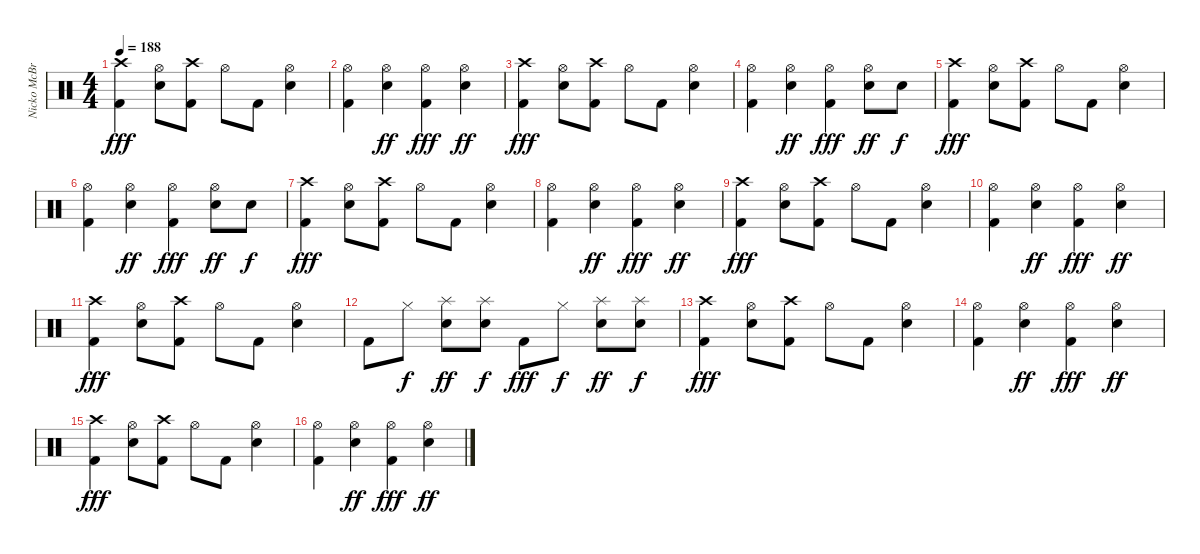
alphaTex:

\track ("Nicko McBrain" "Nicko McBr") {instrument percussion}
\staff {score}
\articulation defaults
\ts (4 4)
\tempo 188
\clef neutral
\ks c
("Crash high (hit)" "Kick (hit) 2").4{dy fff} ("Hi-Hat (open)" "Electric Snare (hit)").8 ("Crash high (hit)" "Kick (hit) 2").8 "Hi-Hat (open)".8 "Kick (hit) 2".8 ("Hi-Hat (open)" "Electric Snare (hit)").4 |
("Hi-Hat (open)" "Kick (hit) 2").4 ("Hi-Hat (open)" "Electric Snare (hit)").4{dy ff} ("Hi-Hat (open)" "Kick (hit) 2").4{dy fff} ("Hi-Hat (open)" "Electric Snare (hit)").4{dy ff} |
("Crash high (hit)" "Kick (hit) 2").4{dy fff} ("Hi-Hat (open)" "Electric Snare (hit)").8 ("Crash high (hit)" "Kick (hit) 2").8 "Hi-Hat (open)".8 "Kick (hit) 2".8 ("Hi-Hat (open)" "Electric Snare (hit)").4 |
("Hi-Hat (open)" "Kick (hit) 2").4 ("Hi-Hat (open)" "Electric Snare (hit)").4{dy ff} ("Hi-Hat (open)" "Kick (hit) 2").4{dy fff} ("Hi-Hat (open)" "Electric Snare (hit)").8{dy ff} "Electric Snare (hit)".8{dy f} |
("Crash high (hit)" "Kick (hit) 2").4{dy fff} ("Hi-Hat (open)" "Electric Snare (hit)").8 ("Crash high (hit)" "Kick (hit) 2").8 "Hi-Hat (open)".8 "Kick (hit) 2".8 ("Hi-Hat (open)" "Electric Snare (hit)").4 |
("Hi-Hat (open)" "Kick (hit) 2").4 ("Hi-Hat (open)" "Electric Snare (hit)").4{dy ff} ("Hi-Hat (open)" "Kick (hit) 2").4{dy fff} ("Hi-Hat (open)" "Electric Snare (hit)").8{dy ff} "Electric Snare (hit)".8{dy f} |
("Crash high (hit)" "Kick (hit) 2").4{dy fff} ("Hi-Hat (open)" "Electric Snare (hit)").8 ("Crash high (hit)" "Kick (hit) 2").8 "Hi-Hat (open)".8 "Kick (hit) 2".8 ("Hi-Hat (open)" "Electric Snare (hit)").4 |
("Hi-Hat (open)" "Kick (hit) 2").4 ("Hi-Hat (open)" "Electric Snare (hit)").4{dy ff} ("Hi-Hat (open)" "Kick (hit) 2").4{dy fff} ("Hi-Hat (open)" "Electric Snare (hit)").4{dy ff} |
("Crash high (hit)" "Kick (hit) 2").4{dy fff} ("Hi-Hat (open)" "Electric Snare (hit)").8 ("Crash high (hit)" "Kick (hit) 2").8 "Hi-Hat (open)".8 "Kick (hit) 2".8 ("Hi-Hat (open)" "Electric Snare (hit)").4 |
("Hi-Hat (open)" "Kick (hit) 2").4 ("Hi-Hat (open)" "Electric Snare (hit)").4{dy ff} ("Hi-Hat (open)" "Kick (hit) 2").4{dy fff} ("Hi-Hat (open)" "Electric Snare (hit)").4{dy ff} |
("Crash high (hit)" "Kick (hit) 2").4{dy fff} ("Hi-Hat (open)" "Electric Snare (hit)").8 ("Crash high (hit)" "Kick (hit) 2").8 "Hi-Hat (open)".8 "Kick (hit) 2".8 ("Hi-Hat (open)" "Electric Snare (hit)").4 |
"Kick (hit) 2".8 "Hi-Hat (closed)".8{dy f} ("Splash (hit)" "Electric Snare (hit)").8{dy ff} ("Splash (hit)" "Electric Snare (hit)").8{dy f} "Kick (hit) 2".8{dy fff} "Hi-Hat (closed)".8{dy f} ("Splash (hit)" "Electric Snare (hit)").8{dy ff} ("Splash (hit)" "Electric Snare (hit)").8{dy f} |
("Crash high (hit)" "Kick (hit) 2").4{dy fff} ("Hi-Hat (open)" "Electric Snare (hit)").8 ("Crash high (hit)" "Kick (hit) 2").8 "Hi-Hat (open)".8 "Kick (hit) 2".8 ("Hi-Hat (open)" "Electric Snare (hit)").4 |
("Hi-Hat (open)" "Kick (hit) 2").4 ("Hi-Hat (open)" "Electric Snare (hit)").4{dy ff} ("Hi-Hat (open)" "Kick (hit) 2").4{dy fff} ("Hi-Hat (open)" "Electric Snare (hit)").4{dy ff} |
("Crash high (hit)" "Kick (hit) 2").4{dy fff} ("Hi-Hat (open)" "Electric Snare (hit)").8 ("Crash high (hit)" "Kick (hit) 2").8 "Hi-Hat (open)".8 "Kick (hit) 2".8 ("Hi-Hat (open)" "Electric Snare (hit)").4 |
("Hi-Hat (open)" "Kick (hit) 2").4 ("Hi-Hat (open)" "Electric Snare (hit)").4{dy ff} ("Hi-Hat (open)" "Kick (hit) 2").4{dy fff} ("Hi-Hat (open)" "Electric Snare (hit)").4{dy ff}
